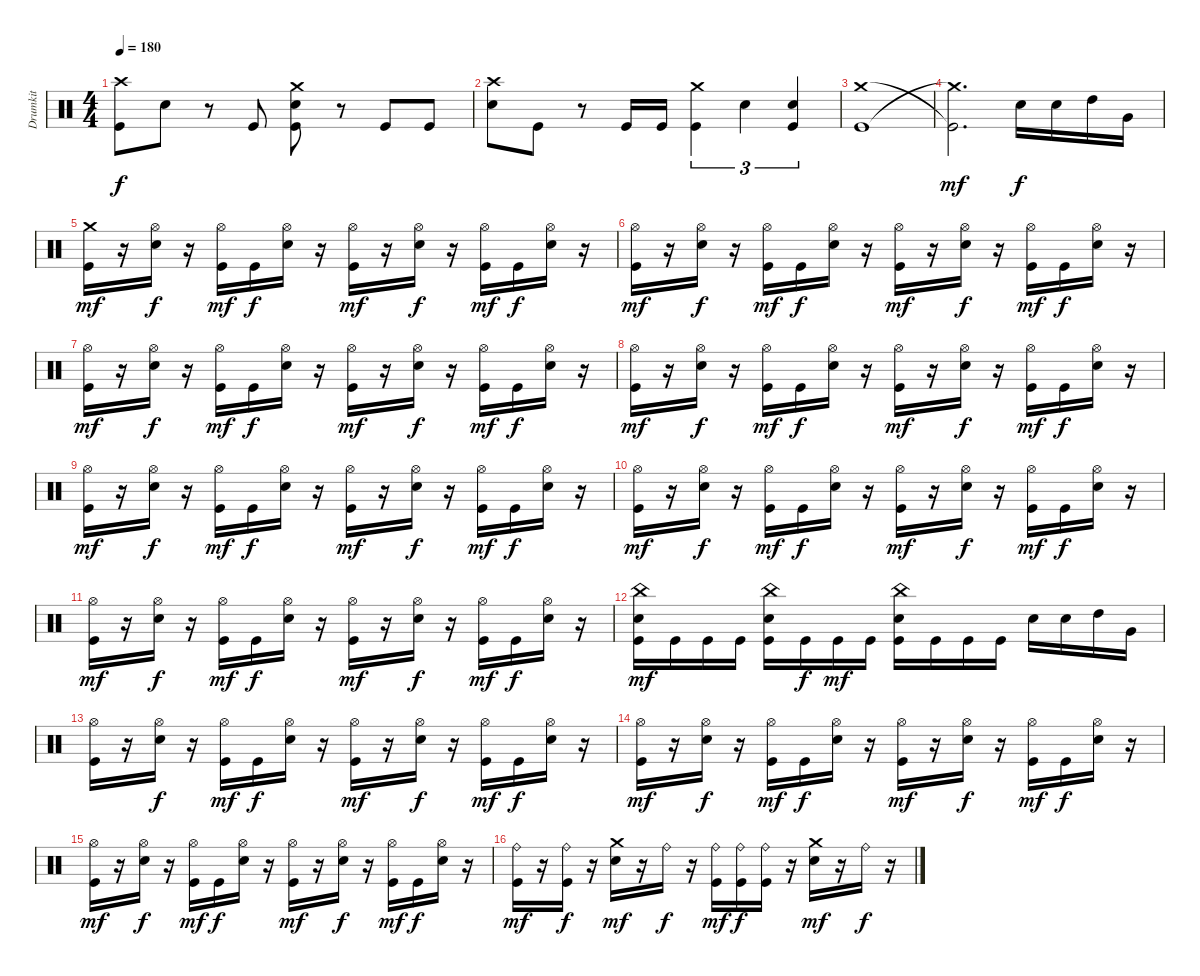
\track ("Drumkit" "Drumkit") {instrument percussion}
\staff {score}
\articulation defaults
\ts (4 4)
\tempo 180
\clef neutral
\ks c
("Kick (hit)" "Crash high (hit)").8{dy f} "Snare (hit) 2".8 r.8 "Kick (hit)".8 ("Kick (hit)" "Crash medium (hit)" "Snare (hit) 2").8 r.8 "Kick (hit)".8 "Kick (hit)".8 |
("Crash high (hit)" "Snare (hit) 2").8 "Kick (hit)".8 r.8 "Kick (hit)".16 "Kick (hit)".16 ("Crash medium (hit)" "Kick (hit)").4{tu (3 2)} "Snare (hit) 2".4{tu (3 2)} ("Kick (hit)" "Snare (hit) 2").4{tu (3 2)} |
("Crash medium (hit)" "Kick (hit)").1 |
("Kick (hit)"{t} "Crash medium (hit)"{t}).2{d dy mf} "Snare (hit) 2".16{dy f} "Snare (hit) 2".16 "High Tom (hit)".16 "Very Low Tom (hit)".16 |
("Crash medium (hit)" "Kick (hit)").16{dy mf} r.16 ("Hi-Hat (open)" "Snare (hit) 2").16{dy f} r.16 ("Hi-Hat (open)" "Kick (hit)").16{dy mf} "Kick (hit)".16{dy f} ("Hi-Hat (open)" "Snare (hit) 2").16 r.16 ("Hi-Hat (open)" "Kick (hit)").16{dy mf} r.16 ("Hi-Hat (open)" "Snare (hit) 2").16{dy f} r.16 ("Hi-Hat (open)" "Kick (hit)").16{dy mf} "Kick (hit)".16{dy f} ("Hi-Hat (open)" "Snare (hit) 2").16 r.16 |
("Hi-Hat (open)" "Kick (hit)").16{dy mf} r.16 ("Hi-Hat (open)" "Snare (hit) 2").16{dy f} r.16 ("Hi-Hat (open)" "Kick (hit)").16{dy mf} "Kick (hit)".16{dy f} ("Hi-Hat (open)" "Snare (hit) 2").16 r.16 ("Hi-Hat (open)" "Kick (hit)").16{dy mf} r.16 ("Hi-Hat (open)" "Snare (hit) 2").16{dy f} r.16 ("Hi-Hat (open)" "Kick (hit)").16{dy mf} "Kick (hit)".16{dy f} ("Hi-Hat (open)" "Snare (hit) 2").16 r.16 |
("Hi-Hat (open)" "Kick (hit)").16{dy mf} r.16 ("Hi-Hat (open)" "Snare (hit) 2").16{dy f} r.16 ("Hi-Hat (open)" "Kick (hit)").16{dy mf} "Kick (hit)".16{dy f} ("Hi-Hat (open)" "Snare (hit) 2").16 r.16 ("Hi-Hat (open)" "Kick (hit)").16{dy mf} r.16 ("Hi-Hat (open)" "Snare (hit) 2").16{dy f} r.16 ("Hi-Hat (open)" "Kick (hit)").16{dy mf} "Kick (hit)".16{dy f} ("Hi-Hat (open)" "Snare (hit) 2").16 r.16 |
("Hi-Hat (open)" "Kick (hit)").16{dy mf} r.16 ("Hi-Hat (open)" "Snare (hit) 2").16{dy f} r.16 ("Hi-Hat (open)" "Kick (hit)").16{dy mf} "Kick (hit)".16{dy f} ("Hi-Hat (open)" "Snare (hit) 2").16 r.16 ("Hi-Hat (open)" "Kick (hit)").16{dy mf} r.16 ("Hi-Hat (open)" "Snare (hit) 2").16{dy f} r.16 ("Hi-Hat (open)" "Kick (hit)").16{dy mf} "Kick (hit)".16{dy f} ("Hi-Hat (open)" "Snare (hit) 2").16 r.16 |
("Hi-Hat (open)" "Kick (hit)").16{dy mf} r.16 ("Hi-Hat (open)" "Snare (hit) 2").16{dy f} r.16 ("Hi-Hat (open)" "Kick (hit)").16{dy mf} "Kick (hit)".16{dy f} ("Hi-Hat (open)" "Snare (hit) 2").16 r.16 ("Hi-Hat (open)" "Kick (hit)").16{dy mf} r.16 ("Hi-Hat (open)" "Snare (hit) 2").16{dy f} r.16 ("Hi-Hat (open)" "Kick (hit)").16{dy mf} "Kick (hit)".16{dy f} ("Hi-Hat (open)" "Snare (hit) 2").16 r.16 |
("Hi-Hat (open)" "Kick (hit)").16{dy mf} r.16 ("Hi-Hat (open)" "Snare (hit) 2").16{dy f} r.16 ("Hi-Hat (open)" "Kick (hit)").16{dy mf} "Kick (hit)".16{dy f} ("Hi-Hat (open)" "Snare (hit) 2").16 r.16 ("Hi-Hat (open)" "Kick (hit)").16{dy mf} r.16 ("Hi-Hat (open)" "Snare (hit) 2").16{dy f} r.16 ("Hi-Hat (open)" "Kick (hit)").16{dy mf} "Kick (hit)".16{dy f} ("Hi-Hat (open)" "Snare (hit) 2").16 r.16 |
("Hi-Hat (open)" "Kick (hit)").16{dy mf} r.16 ("Hi-Hat (open)" "Snare (hit) 2").16{dy f} r.16 ("Hi-Hat (open)" "Kick (hit)").16{dy mf} "Kick (hit)".16{dy f} ("Hi-Hat (open)" "Snare (hit) 2").16 r.16 ("Hi-Hat (open)" "Kick (hit)").16{dy mf} r.16 ("Hi-Hat (open)" "Snare (hit) 2").16{dy f} r.16 ("Hi-Hat (open)" "Kick (hit)").16{dy mf} "Kick (hit)".16{dy f} ("Hi-Hat (open)" "Snare (hit) 2").16 r.16 |
("China (hit)" "Snare (hit) 2" "Kick (hit)").16{dy mf} "Kick (hit)".16 "Kick (hit)".16 "Kick (hit)".16 ("China (hit)" "Snare (hit) 2" "Kick (hit)").16 "Kick (hit)".16{dy f} "Kick (hit)".16{dy mf} "Kick (hit)".16 ("China (hit)" "Snare (hit) 2" "Kick (hit)").16 "Kick (hit)".16 "Kick (hit)".16 "Kick (hit)".16 "Snare (hit) 2".16 "Snare (hit) 2".16 "High Tom (hit)".16 "Very Low Tom (hit)".16 |
("Hi-Hat (open)" "Kick (hit)").16 r.16 ("Hi-Hat (open)" "Snare (hit) 2").16{dy f} r.16 ("Hi-Hat (open)" "Kick (hit)").16{dy mf} "Kick (hit)".16{dy f} ("Hi-Hat (open)" "Snare (hit) 2").16 r.16 ("Hi-Hat (open)" "Kick (hit)").16{dy mf} r.16 ("Hi-Hat (open)" "Snare (hit) 2").16{dy f} r.16 ("Hi-Hat (open)" "Kick (hit)").16{dy mf} "Kick (hit)".16{dy f} ("Hi-Hat (open)" "Snare (hit) 2").16 r.16 |
("Hi-Hat (open)" "Kick (hit)").16{dy mf} r.16 ("Hi-Hat (open)" "Snare (hit) 2").16{dy f} r.16 ("Hi-Hat (open)" "Kick (hit)").16{dy mf} "Kick (hit)".16{dy f} ("Hi-Hat (open)" "Snare (hit) 2").16 r.16 ("Hi-Hat (open)" "Kick (hit)").16{dy mf} r.16 ("Hi-Hat (open)" "Snare (hit) 2").16{dy f} r.16 ("Hi-Hat (open)" "Kick (hit)").16{dy mf} "Kick (hit)".16{dy f} ("Hi-Hat (open)" "Snare (hit) 2").16 r.16 |
("Hi-Hat (open)" "Kick (hit)").16{dy mf} r.16 ("Hi-Hat (open)" "Snare (hit) 2").16{dy f} r.16 ("Hi-Hat (open)" "Kick (hit)").16{dy mf} "Kick (hit)".16{dy f} ("Hi-Hat (open)" "Snare (hit) 2").16 r.16 ("Hi-Hat (open)" "Kick (hit)").16{dy mf} r.16 ("Hi-Hat (open)" "Snare (hit) 2").16{dy f} r.16 ("Hi-Hat (open)" "Kick (hit)").16{dy mf} "Kick (hit)".16{dy f} ("Hi-Hat (open)" "Snare (hit) 2").16 r.16 |
("Ride (bell)" "Kick (hit)").16{dy mf} r.16 ("Ride (bell)" "Kick (hit)").16{dy f} r.16 ("Crash medium (hit)" "Snare (hit) 2").16{dy mf} r.16 "Ride (bell)".16{dy f} r.16 ("Ride (bell)" "Kick (hit)").16{dy mf} ("Ride (bell)" "Kick (hit)").16{dy f} ("Ride (bell)" "Kick (hit)").16 r.16 ("Crash medium (hit)" "Snare (hit) 2").16{dy mf} r.16 "Ride (bell)".16{dy f} r.16
